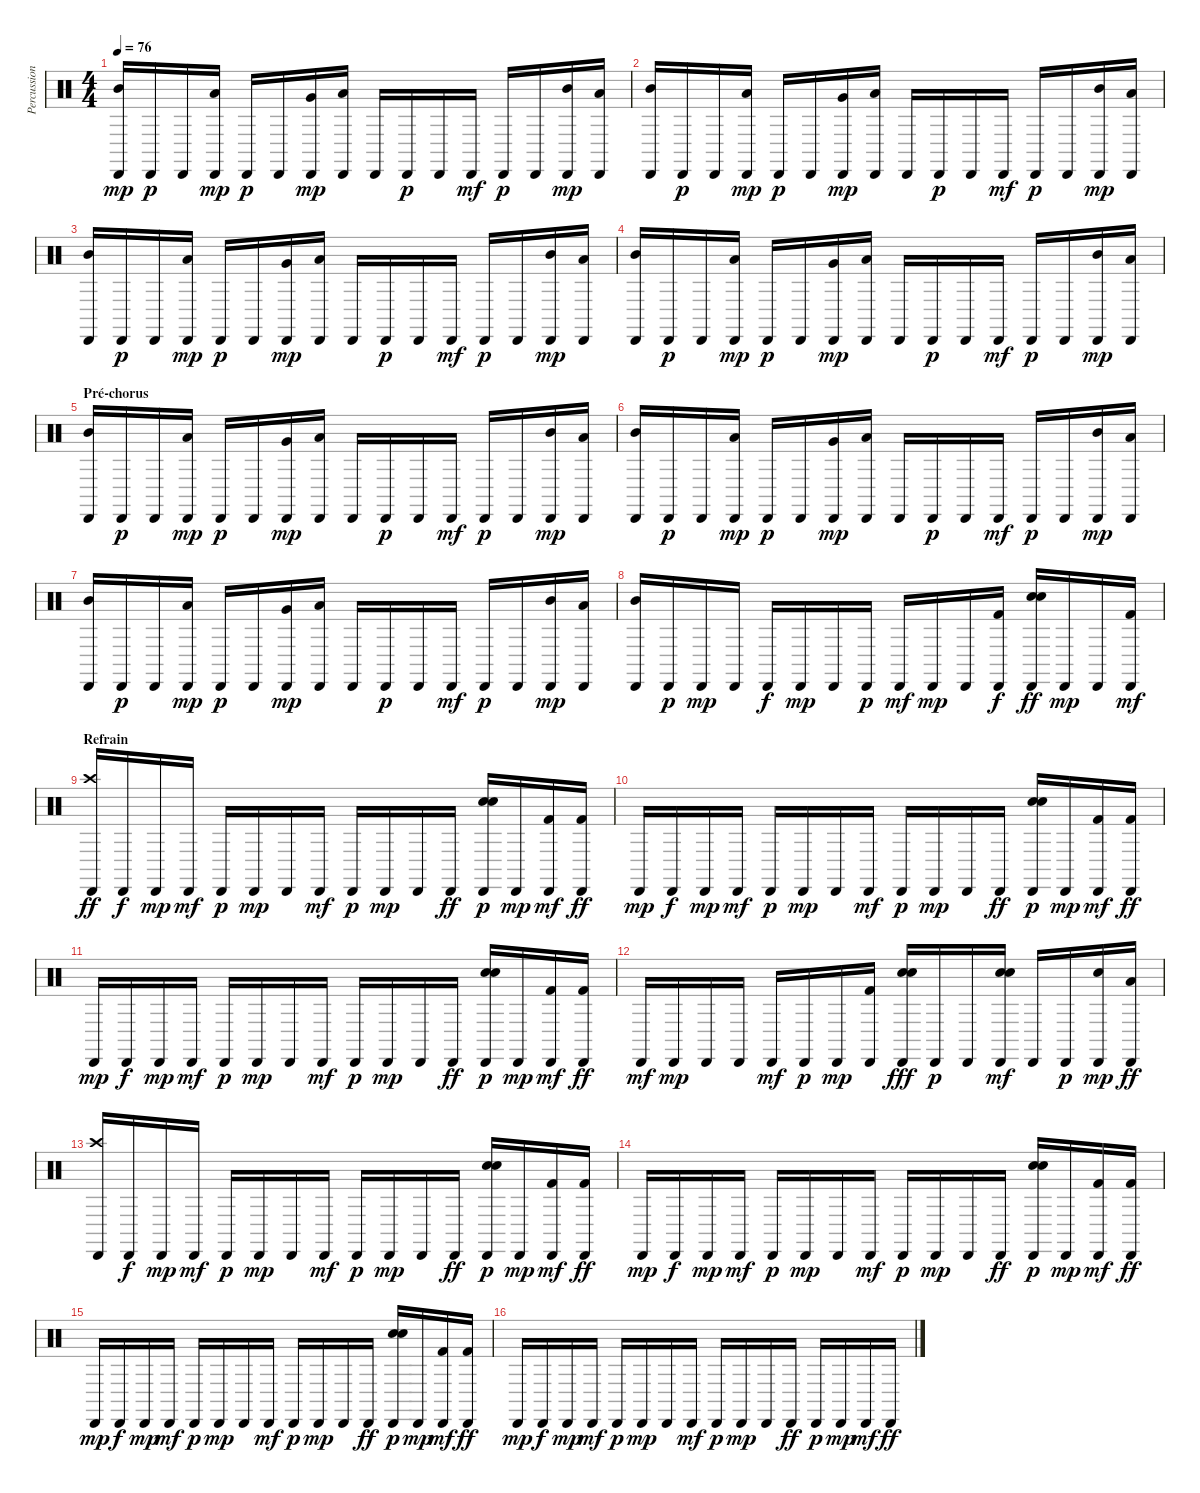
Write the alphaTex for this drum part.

\track ("Percussions" "Percussion") {instrument percussion}
\staff {score}
\articulation defaults
\ts (4 4)
\tempo 76
\clef neutral
\ks c
("Cabasa (hit)" "Mid Tom (hit)").16{dy mp} "Cabasa (hit)".16{dy p} "Cabasa (hit)".16 ("Cabasa (hit)" "Low Tom (hit)").16{dy mp} "Cabasa (hit)".16{dy p} "Cabasa (hit)".16 ("Cabasa (hit)" "Very Low Tom (hit)").16{dy mp} ("Cabasa (hit)" "Low Floor Tom (hit)").16 "Cabasa (hit)".16 "Cabasa (hit)".16{dy p} "Cabasa (hit)".16 "Cabasa (hit)".16{dy mf} "Cabasa (hit)".16{dy p} "Cabasa (hit)".16 ("Cabasa (hit)" "Mid Tom (hit)").16{dy mp} ("Cabasa (hit)" "Low Floor Tom (hit)").16 |
("Cabasa (hit)" "Mid Tom (hit)").16 "Cabasa (hit)".16{dy p} "Cabasa (hit)".16 ("Cabasa (hit)" "Low Tom (hit)").16{dy mp} "Cabasa (hit)".16{dy p} "Cabasa (hit)".16 ("Cabasa (hit)" "Very Low Tom (hit)").16{dy mp} ("Cabasa (hit)" "Low Floor Tom (hit)").16 "Cabasa (hit)".16 "Cabasa (hit)".16{dy p} "Cabasa (hit)".16 "Cabasa (hit)".16{dy mf} "Cabasa (hit)".16{dy p} "Cabasa (hit)".16 ("Cabasa (hit)" "Mid Tom (hit)").16{dy mp} ("Cabasa (hit)" "Low Floor Tom (hit)").16 |
("Cabasa (hit)" "Mid Tom (hit)").16 "Cabasa (hit)".16{dy p} "Cabasa (hit)".16 ("Cabasa (hit)" "Low Tom (hit)").16{dy mp} "Cabasa (hit)".16{dy p} "Cabasa (hit)".16 ("Cabasa (hit)" "Very Low Tom (hit)").16{dy mp} ("Cabasa (hit)" "Low Floor Tom (hit)").16 "Cabasa (hit)".16 "Cabasa (hit)".16{dy p} "Cabasa (hit)".16 "Cabasa (hit)".16{dy mf} "Cabasa (hit)".16{dy p} "Cabasa (hit)".16 ("Cabasa (hit)" "Mid Tom (hit)").16{dy mp} ("Cabasa (hit)" "Low Floor Tom (hit)").16 |
("Cabasa (hit)" "Mid Tom (hit)").16 "Cabasa (hit)".16{dy p} "Cabasa (hit)".16 ("Cabasa (hit)" "Low Tom (hit)").16{dy mp} "Cabasa (hit)".16{dy p} "Cabasa (hit)".16 ("Cabasa (hit)" "Very Low Tom (hit)").16{dy mp} ("Cabasa (hit)" "Low Floor Tom (hit)").16 "Cabasa (hit)".16 "Cabasa (hit)".16{dy p} "Cabasa (hit)".16 "Cabasa (hit)".16{dy mf} "Cabasa (hit)".16{dy p} "Cabasa (hit)".16 ("Cabasa (hit)" "Mid Tom (hit)").16{dy mp} ("Cabasa (hit)" "Low Floor Tom (hit)").16 |
\section ("" "Pré-chorus")
("Cabasa (hit)" "Mid Tom (hit)").16 "Cabasa (hit)".16{dy p} "Cabasa (hit)".16 ("Cabasa (hit)" "Low Tom (hit)").16{dy mp} "Cabasa (hit)".16{dy p} "Cabasa (hit)".16 ("Cabasa (hit)" "Very Low Tom (hit)").16{dy mp} ("Cabasa (hit)" "Low Floor Tom (hit)").16 "Cabasa (hit)".16 "Cabasa (hit)".16{dy p} "Cabasa (hit)".16 "Cabasa (hit)".16{dy mf} "Cabasa (hit)".16{dy p} "Cabasa (hit)".16 ("Cabasa (hit)" "Mid Tom (hit)").16{dy mp} ("Cabasa (hit)" "Low Floor Tom (hit)").16 |
("Cabasa (hit)" "Mid Tom (hit)").16 "Cabasa (hit)".16{dy p} "Cabasa (hit)".16 ("Cabasa (hit)" "Low Tom (hit)").16{dy mp} "Cabasa (hit)".16{dy p} "Cabasa (hit)".16 ("Cabasa (hit)" "Very Low Tom (hit)").16{dy mp} ("Cabasa (hit)" "Low Floor Tom (hit)").16 "Cabasa (hit)".16 "Cabasa (hit)".16{dy p} "Cabasa (hit)".16 "Cabasa (hit)".16{dy mf} "Cabasa (hit)".16{dy p} "Cabasa (hit)".16 ("Cabasa (hit)" "Mid Tom (hit)").16{dy mp} ("Cabasa (hit)" "Low Floor Tom (hit)").16 |
("Cabasa (hit)" "Mid Tom (hit)").16 "Cabasa (hit)".16{dy p} "Cabasa (hit)".16 ("Cabasa (hit)" "Low Tom (hit)").16{dy mp} "Cabasa (hit)".16{dy p} "Cabasa (hit)".16 ("Cabasa (hit)" "Very Low Tom (hit)").16{dy mp} ("Cabasa (hit)" "Low Floor Tom (hit)").16 "Cabasa (hit)".16 "Cabasa (hit)".16{dy p} "Cabasa (hit)".16 "Cabasa (hit)".16{dy mf} "Cabasa (hit)".16{dy p} "Cabasa (hit)".16 ("Cabasa (hit)" "Mid Tom (hit)").16{dy mp} ("Cabasa (hit)" "Low Floor Tom (hit)").16 |
("Cabasa (hit)" "Mid Tom (hit)").16 "Cabasa (hit)".16{dy p} "Cabasa (hit)".16{dy mp} "Cabasa (hit)".16 "Cabasa (hit)".16{dy f} "Cabasa (hit)".16{dy mp} "Cabasa (hit)".16 "Cabasa (hit)".16{dy p} "Cabasa (hit)".16{dy mf} "Cabasa (hit)".16{dy mp} "Cabasa (hit)".16 ("Cabasa (hit)" "Kick (hit) 2").16{dy f} ("Cabasa (hit)" "Electric Snare (hit)" "Snare (hit) 2").16{dy ff} "Cabasa (hit)".16{dy mp} "Cabasa (hit)".16 ("Cabasa (hit)" "Kick (hit) 2").16{dy mf} |
\section ("" "Refrain")
("Cabasa (hit)" "Crash high (hit)").16{dy ff} "Cabasa (hit)".16{dy f} "Cabasa (hit)".16{dy mp} "Cabasa (hit)".16{dy mf} "Cabasa (hit)".16{dy p} "Cabasa (hit)".16{dy mp} "Cabasa (hit)".16 "Cabasa (hit)".16{dy mf} "Cabasa (hit)".16{dy p} "Cabasa (hit)".16{dy mp} "Cabasa (hit)".16 "Cabasa (hit)".16{dy ff} ("Cabasa (hit)" "Electric Snare (hit)" "Snare (hit) 2").16{dy p} "Cabasa (hit)".16{dy mp} ("Cabasa (hit)" "Kick (hit) 2").16{dy mf} ("Cabasa (hit)" "Kick (hit) 2").16{dy ff} |
"Cabasa (hit)".16{dy mp} "Cabasa (hit)".16{dy f} "Cabasa (hit)".16{dy mp} "Cabasa (hit)".16{dy mf} "Cabasa (hit)".16{dy p} "Cabasa (hit)".16{dy mp} "Cabasa (hit)".16 "Cabasa (hit)".16{dy mf} "Cabasa (hit)".16{dy p} "Cabasa (hit)".16{dy mp} "Cabasa (hit)".16 "Cabasa (hit)".16{dy ff} ("Cabasa (hit)" "Electric Snare (hit)" "Snare (hit) 2").16{dy p} "Cabasa (hit)".16{dy mp} ("Cabasa (hit)" "Kick (hit) 2").16{dy mf} ("Cabasa (hit)" "Kick (hit) 2").16{dy ff} |
"Cabasa (hit)".16{dy mp} "Cabasa (hit)".16{dy f} "Cabasa (hit)".16{dy mp} "Cabasa (hit)".16{dy mf} "Cabasa (hit)".16{dy p} "Cabasa (hit)".16{dy mp} "Cabasa (hit)".16 "Cabasa (hit)".16{dy mf} "Cabasa (hit)".16{dy p} "Cabasa (hit)".16{dy mp} "Cabasa (hit)".16 "Cabasa (hit)".16{dy ff} ("Cabasa (hit)" "Electric Snare (hit)" "Snare (hit) 2").16{dy p} "Cabasa (hit)".16{dy mp} ("Cabasa (hit)" "Kick (hit) 2").16{dy mf} ("Cabasa (hit)" "Kick (hit) 2").16{dy ff} |
"Cabasa (hit)".16{dy mf} "Cabasa (hit)".16{dy mp} "Cabasa (hit)".16 "Cabasa (hit)".16 "Cabasa (hit)".16{dy mf} "Cabasa (hit)".16{dy p} "Cabasa (hit)".16{dy mp} ("Cabasa (hit)" "Kick (hit) 2").16 ("Cabasa (hit)" "Electric Snare (hit)" "Snare (hit) 2").16{dy fff} "Cabasa (hit)".16{dy p} "Cabasa (hit)".16 ("Cabasa (hit)" "Electric Snare (hit)" "Snare (hit) 2").16{dy mf} "Cabasa (hit)".16 "Cabasa (hit)".16{dy p} ("Cabasa (hit)" "Electric Snare (hit)").16{dy mp} ("Cabasa (hit)" "Low Floor Tom (hit)").16{dy ff} |
("Cabasa (hit)" "Crash high (hit)").16 "Cabasa (hit)".16{dy f} "Cabasa (hit)".16{dy mp} "Cabasa (hit)".16{dy mf} "Cabasa (hit)".16{dy p} "Cabasa (hit)".16{dy mp} "Cabasa (hit)".16 "Cabasa (hit)".16{dy mf} "Cabasa (hit)".16{dy p} "Cabasa (hit)".16{dy mp} "Cabasa (hit)".16 "Cabasa (hit)".16{dy ff} ("Cabasa (hit)" "Electric Snare (hit)" "Snare (hit) 2").16{dy p} "Cabasa (hit)".16{dy mp} ("Cabasa (hit)" "Kick (hit) 2").16{dy mf} ("Cabasa (hit)" "Kick (hit) 2").16{dy ff} |
"Cabasa (hit)".16{dy mp} "Cabasa (hit)".16{dy f} "Cabasa (hit)".16{dy mp} "Cabasa (hit)".16{dy mf} "Cabasa (hit)".16{dy p} "Cabasa (hit)".16{dy mp} "Cabasa (hit)".16 "Cabasa (hit)".16{dy mf} "Cabasa (hit)".16{dy p} "Cabasa (hit)".16{dy mp} "Cabasa (hit)".16 "Cabasa (hit)".16{dy ff} ("Cabasa (hit)" "Electric Snare (hit)" "Snare (hit) 2").16{dy p} "Cabasa (hit)".16{dy mp} ("Cabasa (hit)" "Kick (hit) 2").16{dy mf} ("Cabasa (hit)" "Kick (hit) 2").16{dy ff} |
"Cabasa (hit)".16{dy mp} "Cabasa (hit)".16{dy f} "Cabasa (hit)".16{dy mp} "Cabasa (hit)".16{dy mf} "Cabasa (hit)".16{dy p} "Cabasa (hit)".16{dy mp} "Cabasa (hit)".16 "Cabasa (hit)".16{dy mf} "Cabasa (hit)".16{dy p} "Cabasa (hit)".16{dy mp} "Cabasa (hit)".16 "Cabasa (hit)".16{dy ff} ("Cabasa (hit)" "Electric Snare (hit)" "Snare (hit) 2").16{dy p} "Cabasa (hit)".16{dy mp} ("Cabasa (hit)" "Kick (hit) 2").16{dy mf} ("Cabasa (hit)" "Kick (hit) 2").16{dy ff} |
"Cabasa (hit)".16{dy mp} "Cabasa (hit)".16{dy f} "Cabasa (hit)".16{dy mp} "Cabasa (hit)".16{dy mf} "Cabasa (hit)".16{dy p} "Cabasa (hit)".16{dy mp} "Cabasa (hit)".16 "Cabasa (hit)".16{dy mf} "Cabasa (hit)".16{dy p} "Cabasa (hit)".16{dy mp} "Cabasa (hit)".16 "Cabasa (hit)".16{dy ff} "Cabasa (hit)".16{dy p} "Cabasa (hit)".16{dy mp} "Cabasa (hit)".16{dy mf} "Cabasa (hit)".16{dy ff}
